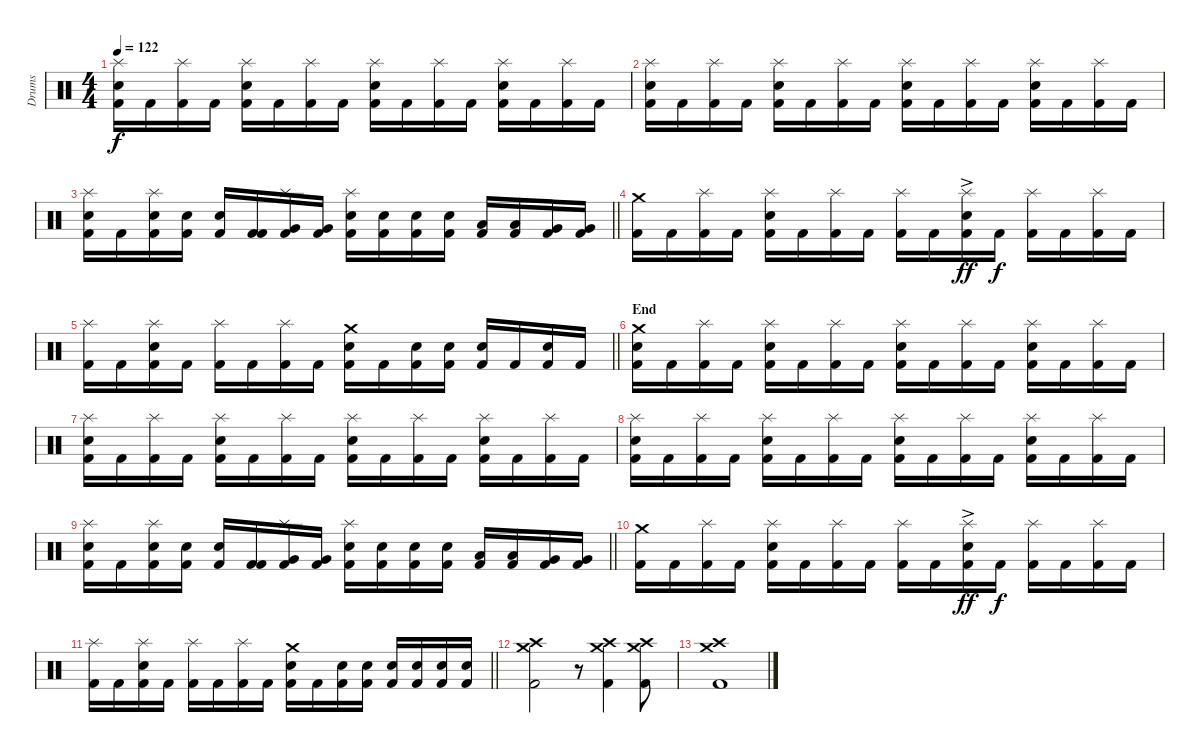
\track ("Drums" "Drums") {instrument percussion}
\staff {score}
\articulation defaults
\ts (4 4)
\tempo 122
\clef neutral
\ks c
("Kick (hit) 2" "Snare (hit) 2" "Splash (hit)").16{dy f} "Kick (hit) 2".16 ("Kick (hit) 2" "Splash (hit)").16 "Kick (hit) 2".16 ("Kick (hit) 2" "Snare (hit) 2" "Splash (hit)").16 "Kick (hit) 2".16 ("Kick (hit) 2" "Splash (hit)").16 "Kick (hit) 2".16 ("Kick (hit) 2" "Snare (hit) 2" "Splash (hit)").16 "Kick (hit) 2".16 ("Kick (hit) 2" "Splash (hit)").16 "Kick (hit) 2".16 ("Kick (hit) 2" "Snare (hit) 2" "Splash (hit)").16 "Kick (hit) 2".16 ("Kick (hit) 2" "Splash (hit)").16 "Kick (hit) 2".16 |
("Kick (hit) 2" "Snare (hit) 2" "Splash (hit)").16 "Kick (hit) 2".16 ("Kick (hit) 2" "Splash (hit)").16 "Kick (hit) 2".16 ("Kick (hit) 2" "Snare (hit) 2" "Splash (hit)").16 "Kick (hit) 2".16 ("Kick (hit) 2" "Splash (hit)").16 "Kick (hit) 2".16 ("Kick (hit) 2" "Snare (hit) 2" "Splash (hit)").16 "Kick (hit) 2".16 ("Kick (hit) 2" "Splash (hit)").16 "Kick (hit) 2".16 ("Kick (hit) 2" "Snare (hit) 2" "Splash (hit)").16 "Kick (hit) 2".16 ("Kick (hit) 2" "Splash (hit)").16 "Kick (hit) 2".16 |
\barLineRight lightlight
("Kick (hit) 2" "Snare (hit) 2" "Splash (hit)").16 "Kick (hit) 2".16 ("Kick (hit) 2" "Snare (hit) 2" "Splash (hit)").16 ("Kick (hit) 2" "Snare (hit) 2").16 ("Kick (hit) 2" "Snare (hit) 2").16 ("Kick (hit) 2" "Kick (hit) 2").16 ("Kick (hit) 2" "Very Low Tom (hit)" "Splash (hit)").16 ("Kick (hit) 2" "Very Low Tom (hit)").16 ("Kick (hit) 2" "Snare (hit) 2" "Splash (hit)").16 ("Kick (hit) 2" "Snare (hit) 2").16 ("Kick (hit) 2" "Snare (hit) 2").16 ("Kick (hit) 2" "Snare (hit) 2").16 ("Kick (hit) 2" "Low Tom (hit)").16 ("Kick (hit) 2" "Low Tom (hit)").16 ("Kick (hit) 2" "Very Low Tom (hit)").16 ("Kick (hit) 2" "Very Low Tom (hit)").16 |
\section ("" "")
("Kick (hit) 2" "Crash medium (hit)").16 "Kick (hit) 2".16 ("Kick (hit) 2" "Splash (hit)").16 "Kick (hit) 2".16 ("Kick (hit) 2" "Snare (hit) 2" "Splash (hit)").16 "Kick (hit) 2".16 ("Kick (hit) 2" "Splash (hit)").16 "Kick (hit) 2".16 ("Kick (hit) 2" "Splash (hit)").16 "Kick (hit) 2".16 ("Kick (hit) 2" "Snare (hit) 2"{ac} "Splash (hit)").16{dy ff} "Kick (hit) 2".16{dy f} ("Kick (hit) 2" "Splash (hit)").16 "Kick (hit) 2".16 ("Kick (hit) 2" "Splash (hit)").16 "Kick (hit) 2".16 |
\barLineRight lightlight
("Kick (hit) 2" "Splash (hit)").16 "Kick (hit) 2".16 ("Kick (hit) 2" "Snare (hit) 2" "Splash (hit)").16 "Kick (hit) 2".16 ("Kick (hit) 2" "Splash (hit)").16 "Kick (hit) 2".16 ("Kick (hit) 2" "Splash (hit)").16 "Kick (hit) 2".16 ("Kick (hit) 2" "Snare (hit) 2" "Crash medium (hit)").16 "Kick (hit) 2".16 ("Kick (hit) 2" "Snare (hit) 2").16 ("Kick (hit) 2" "Snare (hit) 2").16 ("Kick (hit) 2" "Snare (hit) 2").16 "Kick (hit) 2".16 ("Kick (hit) 2" "Snare (hit) 2").16 "Kick (hit) 2".16 |
\section ("" "End")
("Kick (hit) 2" "Snare (hit) 2" "Crash medium (hit)").16 "Kick (hit) 2".16 ("Kick (hit) 2" "Splash (hit)").16 "Kick (hit) 2".16 ("Kick (hit) 2" "Snare (hit) 2" "Splash (hit)").16 "Kick (hit) 2".16 ("Kick (hit) 2" "Splash (hit)").16 "Kick (hit) 2".16 ("Kick (hit) 2" "Snare (hit) 2" "Splash (hit)").16 "Kick (hit) 2".16 ("Kick (hit) 2" "Splash (hit)").16 "Kick (hit) 2".16 ("Kick (hit) 2" "Snare (hit) 2" "Splash (hit)").16 "Kick (hit) 2".16 ("Kick (hit) 2" "Splash (hit)").16 "Kick (hit) 2".16 |
("Kick (hit) 2" "Snare (hit) 2" "Splash (hit)").16 "Kick (hit) 2".16 ("Kick (hit) 2" "Splash (hit)").16 "Kick (hit) 2".16 ("Kick (hit) 2" "Snare (hit) 2" "Splash (hit)").16 "Kick (hit) 2".16 ("Kick (hit) 2" "Splash (hit)").16 "Kick (hit) 2".16 ("Kick (hit) 2" "Snare (hit) 2" "Splash (hit)").16 "Kick (hit) 2".16 ("Kick (hit) 2" "Splash (hit)").16 "Kick (hit) 2".16 ("Kick (hit) 2" "Snare (hit) 2" "Splash (hit)").16 "Kick (hit) 2".16 ("Kick (hit) 2" "Splash (hit)").16 "Kick (hit) 2".16 |
("Kick (hit) 2" "Snare (hit) 2" "Splash (hit)").16 "Kick (hit) 2".16 ("Kick (hit) 2" "Splash (hit)").16 "Kick (hit) 2".16 ("Kick (hit) 2" "Snare (hit) 2" "Splash (hit)").16 "Kick (hit) 2".16 ("Kick (hit) 2" "Splash (hit)").16 "Kick (hit) 2".16 ("Kick (hit) 2" "Snare (hit) 2" "Splash (hit)").16 "Kick (hit) 2".16 ("Kick (hit) 2" "Splash (hit)").16 "Kick (hit) 2".16 ("Kick (hit) 2" "Snare (hit) 2" "Splash (hit)").16 "Kick (hit) 2".16 ("Kick (hit) 2" "Splash (hit)").16 "Kick (hit) 2".16 |
\barLineRight lightlight
("Kick (hit) 2" "Snare (hit) 2" "Splash (hit)").16 "Kick (hit) 2".16 ("Kick (hit) 2" "Snare (hit) 2" "Splash (hit)").16 ("Kick (hit) 2" "Snare (hit) 2").16 ("Kick (hit) 2" "Snare (hit) 2").16 ("Kick (hit) 2" "Kick (hit) 2").16 ("Kick (hit) 2" "Very Low Tom (hit)" "Splash (hit)").16 ("Kick (hit) 2" "Very Low Tom (hit)").16 ("Kick (hit) 2" "Snare (hit) 2" "Splash (hit)").16 ("Kick (hit) 2" "Snare (hit) 2").16 ("Kick (hit) 2" "Snare (hit) 2").16 ("Kick (hit) 2" "Snare (hit) 2").16 ("Kick (hit) 2" "Low Tom (hit)").16 ("Kick (hit) 2" "Low Tom (hit)").16 ("Kick (hit) 2" "Very Low Tom (hit)").16 ("Kick (hit) 2" "Very Low Tom (hit)").16 |
\section ("" "")
("Kick (hit) 2" "Crash medium (hit)").16 "Kick (hit) 2".16 ("Kick (hit) 2" "Splash (hit)").16 "Kick (hit) 2".16 ("Kick (hit) 2" "Snare (hit) 2" "Splash (hit)").16 "Kick (hit) 2".16 ("Kick (hit) 2" "Splash (hit)").16 "Kick (hit) 2".16 ("Kick (hit) 2" "Splash (hit)").16 "Kick (hit) 2".16 ("Kick (hit) 2" "Snare (hit) 2"{ac} "Splash (hit)").16{dy ff} "Kick (hit) 2".16{dy f} ("Kick (hit) 2" "Splash (hit)").16 "Kick (hit) 2".16 ("Kick (hit) 2" "Splash (hit)").16 "Kick (hit) 2".16 |
\barLineRight lightlight
("Kick (hit) 2" "Splash (hit)").16 "Kick (hit) 2".16 ("Kick (hit) 2" "Snare (hit) 2" "Splash (hit)").16 "Kick (hit) 2".16 ("Kick (hit) 2" "Splash (hit)").16 "Kick (hit) 2".16 ("Kick (hit) 2" "Splash (hit)").16 "Kick (hit) 2".16 ("Kick (hit) 2" "Snare (hit) 2" "Crash medium (hit)").16 "Kick (hit) 2".16 ("Kick (hit) 2" "Snare (hit) 2").16 ("Kick (hit) 2" "Snare (hit) 2").16 ("Kick (hit) 2" "Snare (hit) 2").16 ("Kick (hit) 2" "Snare (hit) 2").16 ("Kick (hit) 2" "Snare (hit) 2").16 ("Kick (hit) 2" "Snare (hit) 2").16 |
("Kick (hit) 2" "Crash high (hit)" "Crash medium (hit)").2 r.8 ("Kick (hit) 2" "Crash high (hit)" "Crash medium (hit)").4 ("Kick (hit) 2" "Crash high (hit)" "Crash medium (hit)").8 |
("Kick (hit) 2" "Crash high (hit)" "Crash medium (hit)").1
